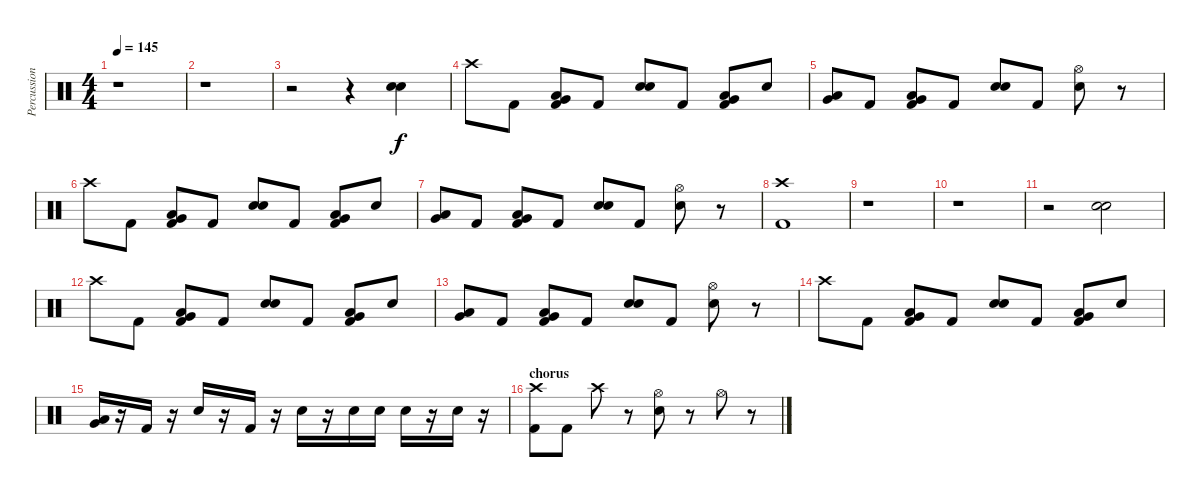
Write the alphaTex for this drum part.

\track ("Percussion" "Percussion") {instrument percussion}
\staff {score}
\articulation defaults
\ts (4 4)
\tempo 145
\clef neutral
\ks c
r.1{dy f} |
r.1 |
r.2 r.4 ("Electric Snare (hit)" "Electric Snare (hit)").4 |
"Crash high (hit)".8 "Kick (hit) 2".8 ("Low Tom (hit)" "Very Low Tom (hit)" "Kick (hit) 2").8 "Kick (hit) 2".8 ("Electric Snare (hit)" "Electric Snare (hit)").8 "Kick (hit) 2".8 ("Low Tom (hit)" "Very Low Tom (hit)" "Kick (hit) 2").8 "Electric Snare (hit)".8 |
("Low Tom (hit)" "Very Low Tom (hit)").8 "Kick (hit) 2".8 ("Low Tom (hit)" "Very Low Tom (hit)" "Kick (hit) 2").8 "Kick (hit) 2".8 ("Electric Snare (hit)" "Electric Snare (hit)").8 "Kick (hit) 2".8 ("Hi-Hat (open)" "Electric Snare (hit)").8 r.8 |
"Crash high (hit)".8 "Kick (hit) 2".8 ("Low Tom (hit)" "Very Low Tom (hit)" "Kick (hit) 2").8 "Kick (hit) 2".8 ("Electric Snare (hit)" "Electric Snare (hit)").8 "Kick (hit) 2".8 ("Low Tom (hit)" "Very Low Tom (hit)" "Kick (hit) 2").8 "Electric Snare (hit)".8 |
("Low Tom (hit)" "Very Low Tom (hit)").8 "Kick (hit) 2".8 ("Low Tom (hit)" "Very Low Tom (hit)" "Kick (hit) 2").8 "Kick (hit) 2".8 ("Electric Snare (hit)" "Electric Snare (hit)").8 "Kick (hit) 2".8 ("Hi-Hat (open)" "Electric Snare (hit)").8 r.8 |
("Crash high (hit)" "Kick (hit) 2").1 |
r.1 |
r.1 |
r.2 ("Electric Snare (hit)" "Electric Snare (hit)").2 |
"Crash high (hit)".8 "Kick (hit) 2".8 ("Low Tom (hit)" "Very Low Tom (hit)" "Kick (hit) 2").8 "Kick (hit) 2".8 ("Electric Snare (hit)" "Electric Snare (hit)").8 "Kick (hit) 2".8 ("Low Tom (hit)" "Very Low Tom (hit)" "Kick (hit) 2").8 "Electric Snare (hit)".8 |
("Low Tom (hit)" "Very Low Tom (hit)").8 "Kick (hit) 2".8 ("Low Tom (hit)" "Very Low Tom (hit)" "Kick (hit) 2").8 "Kick (hit) 2".8 ("Electric Snare (hit)" "Electric Snare (hit)").8 "Kick (hit) 2".8 ("Hi-Hat (open)" "Electric Snare (hit)").8 r.8 |
"Crash high (hit)".8 "Kick (hit) 2".8 ("Low Tom (hit)" "Very Low Tom (hit)" "Kick (hit) 2").8 "Kick (hit) 2".8 ("Electric Snare (hit)" "Electric Snare (hit)").8 "Kick (hit) 2".8 ("Low Tom (hit)" "Very Low Tom (hit)" "Kick (hit) 2").8 "Electric Snare (hit)".8 |
("Low Tom (hit)" "Very Low Tom (hit)").16 r.16 "Kick (hit) 2".16 r.16 "Electric Snare (hit)".16 r.16 "Kick (hit) 2".16 r.16 "Electric Snare (hit)".16 r.16 "Electric Snare (hit)".16 "Electric Snare (hit)".16 "Electric Snare (hit)".16 r.16 "Electric Snare (hit)".16 r.16 |
\section ("" "chorus")
("Crash high (hit)" "Kick (hit) 2").8 "Kick (hit) 2".8 "Crash high (hit)".8 r.8 ("Hi-Hat (open)" "Electric Snare (hit)").8 r.8 "Hi-Hat (open)".8 r.8
